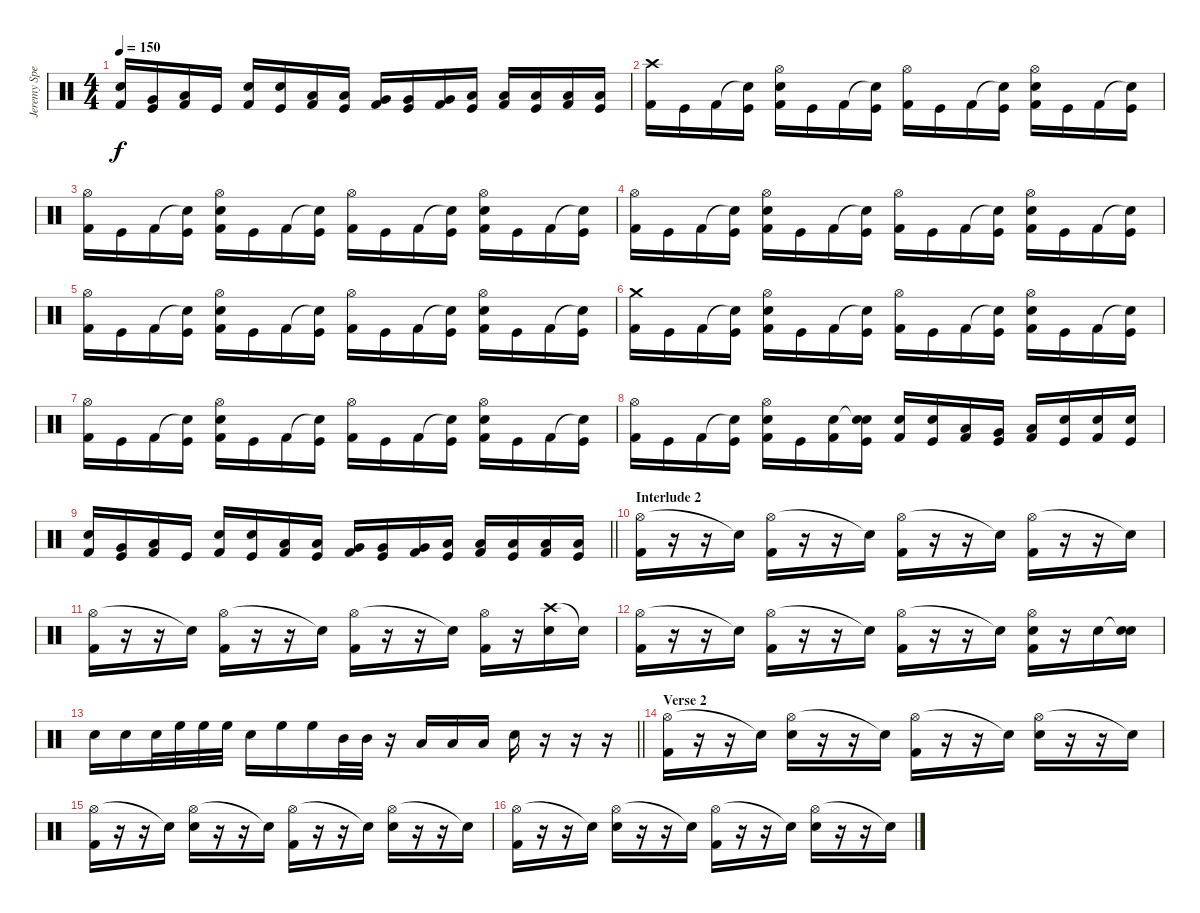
\track ("Jeremy Spencer" "Jeremy Spe") {instrument percussion}
\staff {score}
\articulation defaults
\ts (4 4)
\tempo 150
\clef neutral
\ks c
("Snare (hit) 2" "Kick (hit) 2").16{dy f} ("Very Low Tom (hit)" "Kick (hit)").16 ("Low Floor Tom (hit)" "Kick (hit) 2").16 "Kick (hit)".16 ("Snare (hit) 2" "Kick (hit) 2").16 ("Snare (hit) 2" "Kick (hit)").16 ("Low Tom (hit)" "Kick (hit) 2").16 ("Low Tom (hit)" "Kick (hit)").16 ("Very Low Tom (hit)" "Kick (hit) 2").16 ("Very Low Tom (hit)" "Kick (hit)").16 ("Very Low Tom (hit)" "Kick (hit) 2").16 ("Low Floor Tom (hit)" "Kick (hit)").16 ("Low Floor Tom (hit)" "Kick (hit) 2").16 ("Low Floor Tom (hit)" "Kick (hit)").16 ("Low Floor Tom (hit)" "Kick (hit) 2").16 ("Low Floor Tom (hit)" "Kick (hit)").16 |
("Crash high (hit)" "Kick (hit) 2").16 "Kick (hit)".16 "Kick (hit) 2".16 ("Snare (hit)"{t} "Kick (hit)").16 ("Hi-Hat (open)" "Snare (hit) 2" "Kick (hit) 2").16 "Kick (hit)".16 "Kick (hit) 2".16 ("Snare (hit)"{t} "Kick (hit)").16 ("Hi-Hat (open)" "Kick (hit) 2").16 "Kick (hit)".16 "Kick (hit) 2".16 ("Snare (hit)"{t} "Kick (hit)").16 ("Hi-Hat (open)" "Snare (hit) 2" "Kick (hit) 2").16 "Kick (hit)".16 "Kick (hit) 2".16 ("Snare (hit)"{t} "Kick (hit)").16 |
("Hi-Hat (open)" "Kick (hit) 2").16 "Kick (hit)".16 "Kick (hit) 2".16 ("Snare (hit)"{t} "Kick (hit)").16 ("Hi-Hat (open)" "Snare (hit) 2" "Kick (hit) 2").16 "Kick (hit)".16 "Kick (hit) 2".16 ("Snare (hit)"{t} "Kick (hit)").16 ("Hi-Hat (open)" "Kick (hit) 2").16 "Kick (hit)".16 "Kick (hit) 2".16 ("Snare (hit)"{t} "Kick (hit)").16 ("Hi-Hat (open)" "Snare (hit) 2" "Kick (hit) 2").16 "Kick (hit)".16 "Kick (hit) 2".16 ("Snare (hit)"{t} "Kick (hit)").16 |
("Hi-Hat (open)" "Kick (hit) 2").16 "Kick (hit)".16 "Kick (hit) 2".16 ("Snare (hit)"{t} "Kick (hit)").16 ("Hi-Hat (open)" "Snare (hit) 2" "Kick (hit) 2").16 "Kick (hit)".16 "Kick (hit) 2".16 ("Snare (hit)"{t} "Kick (hit)").16 ("Hi-Hat (open)" "Kick (hit) 2").16 "Kick (hit)".16 "Kick (hit) 2".16 ("Snare (hit)"{t} "Kick (hit)").16 ("Hi-Hat (open)" "Snare (hit) 2" "Kick (hit) 2").16 "Kick (hit)".16 "Kick (hit) 2".16 ("Snare (hit)"{t} "Kick (hit)").16 |
("Hi-Hat (open)" "Kick (hit) 2").16 "Kick (hit)".16 "Kick (hit) 2".16 ("Snare (hit)"{t} "Kick (hit)").16 ("Hi-Hat (open)" "Snare (hit) 2" "Kick (hit) 2").16 "Kick (hit)".16 "Kick (hit) 2".16 ("Snare (hit)"{t} "Kick (hit)").16 ("Hi-Hat (open)" "Kick (hit) 2").16 "Kick (hit)".16 "Kick (hit) 2".16 ("Snare (hit)"{t} "Kick (hit)").16 ("Hi-Hat (open)" "Snare (hit) 2" "Kick (hit) 2").16 "Kick (hit)".16 "Kick (hit) 2".16 ("Snare (hit)"{t} "Kick (hit)").16 |
("Crash medium (hit)" "Kick (hit) 2").16 "Kick (hit)".16 "Kick (hit) 2".16 ("Snare (hit)"{t} "Kick (hit)").16 ("Hi-Hat (open)" "Snare (hit) 2" "Kick (hit) 2").16 "Kick (hit)".16 "Kick (hit) 2".16 ("Snare (hit)"{t} "Kick (hit)").16 ("Hi-Hat (open)" "Kick (hit) 2").16 "Kick (hit)".16 "Kick (hit) 2".16 ("Snare (hit)"{t} "Kick (hit)").16 ("Hi-Hat (open)" "Snare (hit) 2" "Kick (hit) 2").16 "Kick (hit)".16 "Kick (hit) 2".16 ("Snare (hit)"{t} "Kick (hit)").16 |
("Hi-Hat (open)" "Kick (hit) 2").16 "Kick (hit)".16 "Kick (hit) 2".16 ("Snare (hit)"{t} "Kick (hit)").16 ("Hi-Hat (open)" "Snare (hit) 2" "Kick (hit) 2").16 "Kick (hit)".16 "Kick (hit) 2".16 ("Snare (hit)"{t} "Kick (hit)").16 ("Hi-Hat (open)" "Kick (hit) 2").16 "Kick (hit)".16 "Kick (hit) 2".16 ("Snare (hit)"{t} "Kick (hit)").16 ("Hi-Hat (open)" "Snare (hit) 2" "Kick (hit) 2").16 "Kick (hit)".16 "Kick (hit) 2".16 ("Snare (hit)"{t} "Kick (hit)").16 |
("Hi-Hat (open)" "Kick (hit) 2").16 "Kick (hit)".16 "Kick (hit) 2".16 ("Snare (hit)"{t} "Kick (hit)").16 ("Hi-Hat (open)" "Snare (hit) 2" "Kick (hit) 2").16 "Kick (hit)".16 ("Snare (hit) 2" "Kick (hit) 2").16 ("Snare (hit)"{t} "Snare (hit) 2" "Kick (hit)").16 ("Snare (hit) 2" "Kick (hit) 2").16 ("Snare (hit) 2" "Kick (hit)").16 ("Low Tom (hit)" "Kick (hit) 2").16 ("Very Low Tom (hit)" "Kick (hit)").16 ("Low Floor Tom (hit)" "Kick (hit) 2").16 ("Snare (hit) 2" "Kick (hit)").16 ("Snare (hit) 2" "Kick (hit) 2").16 ("Snare (hit) 2" "Kick (hit)").16 |
\barLineRight lightlight
("Snare (hit) 2" "Kick (hit) 2").16 ("Very Low Tom (hit)" "Kick (hit)").16 ("Low Floor Tom (hit)" "Kick (hit) 2").16 "Kick (hit)".16 ("Snare (hit) 2" "Kick (hit) 2").16 ("Snare (hit) 2" "Kick (hit)").16 ("Low Tom (hit)" "Kick (hit) 2").16 ("Low Tom (hit)" "Kick (hit)").16 ("Very Low Tom (hit)" "Kick (hit) 2").16 ("Very Low Tom (hit)" "Kick (hit)").16 ("Very Low Tom (hit)" "Kick (hit) 2").16 ("Low Floor Tom (hit)" "Kick (hit)").16 ("Low Floor Tom (hit)" "Kick (hit) 2").16 ("Low Floor Tom (hit)" "Kick (hit)").16 ("Low Floor Tom (hit)" "Kick (hit) 2").16 ("Low Floor Tom (hit)" "Kick (hit)").16 |
\section ("" "Interlude 2")
("Hi-Hat (open)" "Kick (hit) 2").16 r.16 r.16 "Snare (hit)"{t}.16 ("Hi-Hat (open)" "Kick (hit) 2").16 r.16 r.16 "Snare (hit)"{t}.16 ("Hi-Hat (open)" "Kick (hit) 2").16 r.16 r.16 "Snare (hit)"{t}.16 ("Hi-Hat (open)" "Kick (hit) 2").16 r.16 r.16 "Snare (hit)"{t}.16 |
("Hi-Hat (open)" "Kick (hit) 2").16 r.16 r.16 "Snare (hit)"{t}.16 ("Hi-Hat (open)" "Kick (hit) 2").16 r.16 r.16 "Snare (hit)"{t}.16 ("Hi-Hat (open)" "Kick (hit) 2").16 r.16 r.16 "Snare (hit)"{t}.16 ("Hi-Hat (open)" "Kick (hit) 2").16 r.16 ("Crash high (hit)" "Snare (hit) 2").16 "Snare (hit)"{t}.16 |
("Hi-Hat (open)" "Kick (hit) 2").16 r.16 r.16 "Snare (hit)"{t}.16 ("Hi-Hat (open)" "Kick (hit) 2").16 r.16 r.16 "Snare (hit)"{t}.16 ("Hi-Hat (open)" "Kick (hit) 2").16 r.16 r.16 "Snare (hit)"{t}.16 ("Hi-Hat (open)" "Snare (hit) 2" "Kick (hit) 2").16 r.16 "Snare (hit) 2".16 ("Snare (hit)"{t} "Snare (hit) 2").16 |
\barLineRight lightlight "Snare (hit) 2".16 "Snare (hit) 2".16 "Snare (hit) 2".32 "High Floor Tom (hit)".32 "High Floor Tom (hit)".32 "High Floor Tom (hit)".32 "Snare (hit) 2".16 "High Floor Tom (hit)".16 "High Floor Tom (hit)".16 "Mid Tom (hit)".32 "Mid Tom (hit)".32
r.16 "Low Tom (hit)".16 "Low Tom (hit)".16 "Low Tom (hit)".16 "Snare (hit) 2".16 r.16 r.16 r.16 |
\section ("" "Verse 2")
("Hi-Hat (open)" "Kick (hit) 2").16 r.16 r.16 "Snare (hit)"{t}.16 ("Hi-Hat (open)" "Snare (hit) 2").16 r.16 r.16 "Snare (hit)"{t}.16 ("Hi-Hat (open)" "Kick (hit) 2").16 r.16 r.16 "Snare (hit)"{t}.16 ("Hi-Hat (open)" "Snare (hit) 2").16 r.16 r.16 "Snare (hit)"{t}.16 |
("Hi-Hat (open)" "Kick (hit) 2").16 r.16 r.16 "Snare (hit)"{t}.16 ("Hi-Hat (open)" "Snare (hit) 2").16 r.16 r.16 "Snare (hit)"{t}.16 ("Hi-Hat (open)" "Kick (hit) 2").16 r.16 r.16 "Snare (hit)"{t}.16 ("Hi-Hat (open)" "Snare (hit) 2").16 r.16 r.16 "Snare (hit)"{t}.16 |
("Hi-Hat (open)" "Kick (hit) 2").16 r.16 r.16 "Snare (hit)"{t}.16 ("Hi-Hat (open)" "Snare (hit) 2").16 r.16 r.16 "Snare (hit)"{t}.16 ("Hi-Hat (open)" "Kick (hit) 2").16 r.16 r.16 "Snare (hit)"{t}.16 ("Hi-Hat (open)" "Snare (hit) 2").16 r.16 r.16 "Snare (hit)"{t}.16
